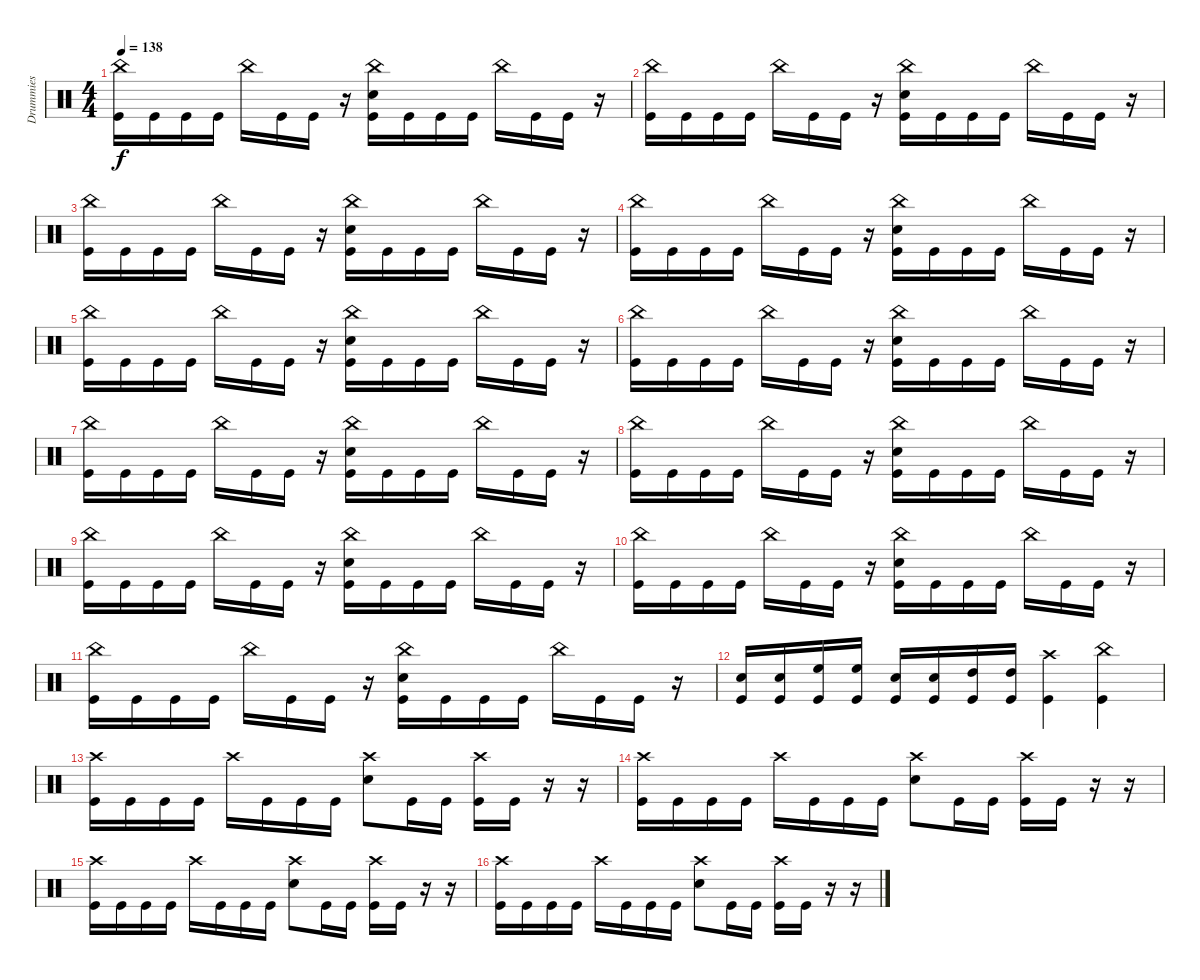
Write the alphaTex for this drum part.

\track ("Drummies" "Drummies") {instrument percussion}
\staff {score}
\articulation defaults
\ts (4 4)
\tempo 138
\clef neutral
\ks c
("China (hit)" "Kick (hit)").16{dy f} "Kick (hit)".16 "Kick (hit)".16 "Kick (hit)".16 "China (hit)".16 "Kick (hit)".16 "Kick (hit)".16 r.16 ("China (hit)" "Electric Snare (hit)" "Kick (hit)").16 "Kick (hit)".16 "Kick (hit)".16 "Kick (hit)".16 "China (hit)".16 "Kick (hit)".16 "Kick (hit)".16 r.16 |
("China (hit)" "Kick (hit)").16 "Kick (hit)".16 "Kick (hit)".16 "Kick (hit)".16 "China (hit)".16 "Kick (hit)".16 "Kick (hit)".16 r.16 ("China (hit)" "Electric Snare (hit)" "Kick (hit)").16 "Kick (hit)".16 "Kick (hit)".16 "Kick (hit)".16 "China (hit)".16 "Kick (hit)".16 "Kick (hit)".16 r.16 |
("China (hit)" "Kick (hit)").16 "Kick (hit)".16 "Kick (hit)".16 "Kick (hit)".16 "China (hit)".16 "Kick (hit)".16 "Kick (hit)".16 r.16 ("China (hit)" "Electric Snare (hit)" "Kick (hit)").16 "Kick (hit)".16 "Kick (hit)".16 "Kick (hit)".16 "China (hit)".16 "Kick (hit)".16 "Kick (hit)".16 r.16 |
("China (hit)" "Kick (hit)").16 "Kick (hit)".16 "Kick (hit)".16 "Kick (hit)".16 "China (hit)".16 "Kick (hit)".16 "Kick (hit)".16 r.16 ("China (hit)" "Electric Snare (hit)" "Kick (hit)").16 "Kick (hit)".16 "Kick (hit)".16 "Kick (hit)".16 "China (hit)".16 "Kick (hit)".16 "Kick (hit)".16 r.16 |
("China (hit)" "Kick (hit)").16 "Kick (hit)".16 "Kick (hit)".16 "Kick (hit)".16 "China (hit)".16 "Kick (hit)".16 "Kick (hit)".16 r.16 ("China (hit)" "Electric Snare (hit)" "Kick (hit)").16 "Kick (hit)".16 "Kick (hit)".16 "Kick (hit)".16 "China (hit)".16 "Kick (hit)".16 "Kick (hit)".16 r.16 |
("China (hit)" "Kick (hit)").16 "Kick (hit)".16 "Kick (hit)".16 "Kick (hit)".16 "China (hit)".16 "Kick (hit)".16 "Kick (hit)".16 r.16 ("China (hit)" "Electric Snare (hit)" "Kick (hit)").16 "Kick (hit)".16 "Kick (hit)".16 "Kick (hit)".16 "China (hit)".16 "Kick (hit)".16 "Kick (hit)".16 r.16 |
("China (hit)" "Kick (hit)").16 "Kick (hit)".16 "Kick (hit)".16 "Kick (hit)".16 "China (hit)".16 "Kick (hit)".16 "Kick (hit)".16 r.16 ("China (hit)" "Electric Snare (hit)" "Kick (hit)").16 "Kick (hit)".16 "Kick (hit)".16 "Kick (hit)".16 "China (hit)".16 "Kick (hit)".16 "Kick (hit)".16 r.16 |
("China (hit)" "Kick (hit)").16 "Kick (hit)".16 "Kick (hit)".16 "Kick (hit)".16 "China (hit)".16 "Kick (hit)".16 "Kick (hit)".16 r.16 ("China (hit)" "Electric Snare (hit)" "Kick (hit)").16 "Kick (hit)".16 "Kick (hit)".16 "Kick (hit)".16 "China (hit)".16 "Kick (hit)".16 "Kick (hit)".16 r.16 |
("China (hit)" "Kick (hit)").16 "Kick (hit)".16 "Kick (hit)".16 "Kick (hit)".16 "China (hit)".16 "Kick (hit)".16 "Kick (hit)".16 r.16 ("China (hit)" "Electric Snare (hit)" "Kick (hit)").16 "Kick (hit)".16 "Kick (hit)".16 "Kick (hit)".16 "China (hit)".16 "Kick (hit)".16 "Kick (hit)".16 r.16 |
("China (hit)" "Kick (hit)").16 "Kick (hit)".16 "Kick (hit)".16 "Kick (hit)".16 "China (hit)".16 "Kick (hit)".16 "Kick (hit)".16 r.16 ("China (hit)" "Electric Snare (hit)" "Kick (hit)").16 "Kick (hit)".16 "Kick (hit)".16 "Kick (hit)".16 "China (hit)".16 "Kick (hit)".16 "Kick (hit)".16 r.16 |
("China (hit)" "Kick (hit)").16 "Kick (hit)".16 "Kick (hit)".16 "Kick (hit)".16 "China (hit)".16 "Kick (hit)".16 "Kick (hit)".16 r.16 ("China (hit)" "Electric Snare (hit)" "Kick (hit)").16 "Kick (hit)".16 "Kick (hit)".16 "Kick (hit)".16 "China (hit)".16 "Kick (hit)".16 "Kick (hit)".16 r.16 |
("Electric Snare (hit)" "Kick (hit)").16 ("Electric Snare (hit)" "Kick (hit)").16 ("High Floor Tom (hit)" "Kick (hit)").16 ("High Floor Tom (hit)" "Kick (hit)").16 ("Electric Snare (hit)" "Kick (hit)").16 ("Electric Snare (hit)" "Kick (hit)").16 ("High Tom (hit)" "Kick (hit)").16 ("High Tom (hit)" "Kick (hit)").16 ("Crash high (hit)" "Kick (hit)").4 ("China (hit)" "Kick (hit)").4 |
("Crash high (hit)" "Kick (hit)").16 "Kick (hit)".16 "Kick (hit)".16 "Kick (hit)".16 "Crash high (hit)".16 "Kick (hit)".16 "Kick (hit)".16 "Kick (hit)".16 ("Crash high (hit)" "Electric Snare (hit)").8 "Kick (hit)".16 "Kick (hit)".16 ("Crash high (hit)" "Kick (hit)").16 "Kick (hit)".16 r.16 r.16 |
("Crash high (hit)" "Kick (hit)").16 "Kick (hit)".16 "Kick (hit)".16 "Kick (hit)".16 "Crash high (hit)".16 "Kick (hit)".16 "Kick (hit)".16 "Kick (hit)".16 ("Crash high (hit)" "Electric Snare (hit)").8 "Kick (hit)".16 "Kick (hit)".16 ("Crash high (hit)" "Kick (hit)").16 "Kick (hit)".16 r.16 r.16 |
("Crash high (hit)" "Kick (hit)").16 "Kick (hit)".16 "Kick (hit)".16 "Kick (hit)".16 "Crash high (hit)".16 "Kick (hit)".16 "Kick (hit)".16 "Kick (hit)".16 ("Crash high (hit)" "Electric Snare (hit)").8 "Kick (hit)".16 "Kick (hit)".16 ("Crash high (hit)" "Kick (hit)").16 "Kick (hit)".16 r.16 r.16 |
("Crash high (hit)" "Kick (hit)").16 "Kick (hit)".16 "Kick (hit)".16 "Kick (hit)".16 "Crash high (hit)".16 "Kick (hit)".16 "Kick (hit)".16 "Kick (hit)".16 ("Crash high (hit)" "Electric Snare (hit)").8 "Kick (hit)".16 "Kick (hit)".16 ("Crash high (hit)" "Kick (hit)").16 "Kick (hit)".16 r.16 r.16
